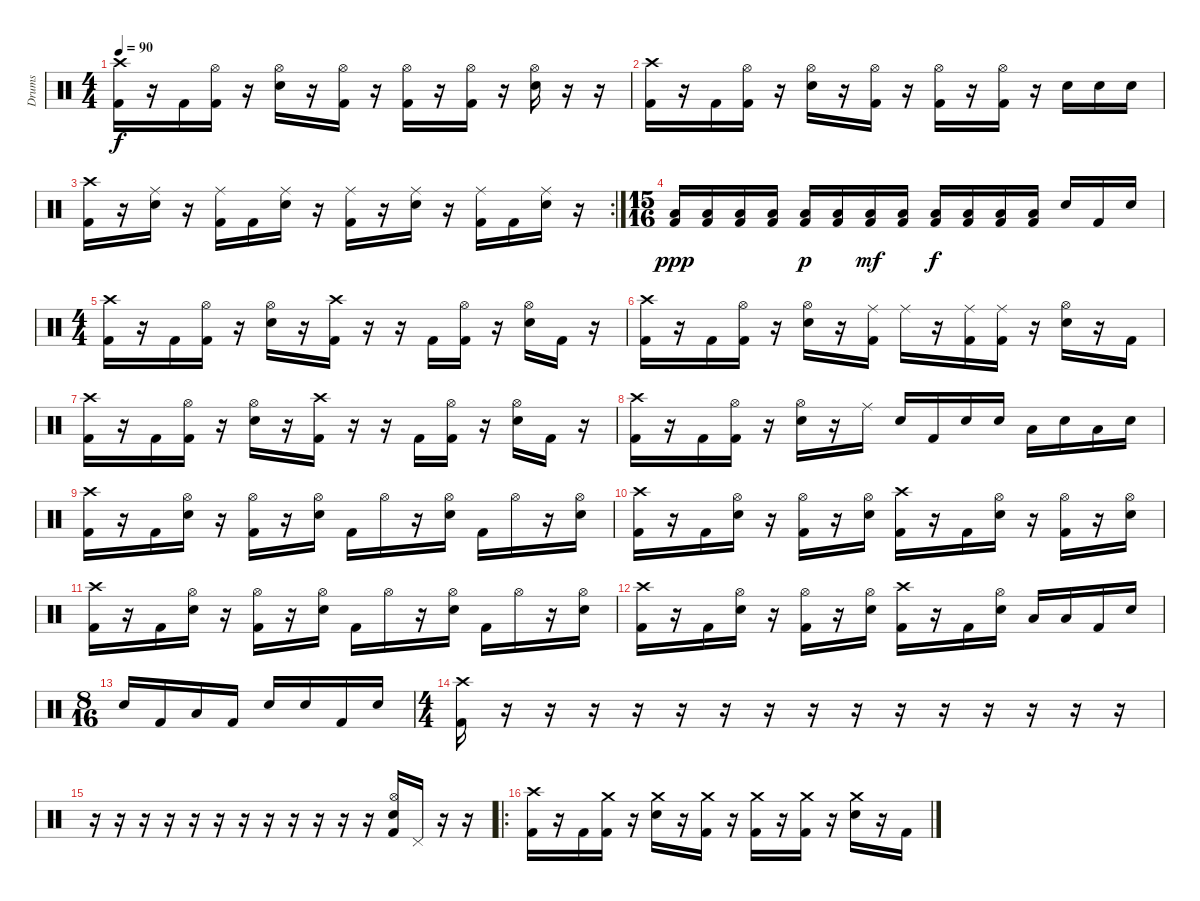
\track ("Drums" "Drums") {instrument percussion}
\staff {score}
\articulation defaults
\ts (4 4)
\tempo 90
\clef neutral
\ks c
("Crash high (hit)" "Kick (hit) 2").16{dy f} r.16 "Kick (hit) 2".16 ("Hi-Hat (open)" "Kick (hit) 2").16 r.16 ("Hi-Hat (open)" "Electric Snare (hit)").16 r.16 ("Hi-Hat (open)" "Kick (hit) 2").16 r.16 ("Hi-Hat (open)" "Kick (hit) 2").16 r.16 ("Hi-Hat (open)" "Kick (hit) 2").16 r.16 ("Hi-Hat (open)" "Electric Snare (hit)").16 r.16 r.16 |
("Crash high (hit)" "Kick (hit) 2").16 r.16 "Kick (hit) 2".16 ("Hi-Hat (open)" "Kick (hit) 2").16 r.16 ("Hi-Hat (open)" "Electric Snare (hit)").16 r.16 ("Hi-Hat (open)" "Kick (hit) 2").16 r.16 ("Hi-Hat (open)" "Kick (hit) 2").16 r.16 ("Hi-Hat (open)" "Kick (hit) 2").16 r.16 "Electric Snare (hit)".16 "Electric Snare (hit)".16 "Electric Snare (hit)".16 |
\rc 2
("Crash high (hit)" "Kick (hit) 2").16 r.16 ("Ride (middle)" "Electric Snare (hit)").16 r.16 ("Ride (middle)" "Kick (hit) 2").16 "Kick (hit) 2".16 ("Ride (middle)" "Electric Snare (hit)").16 r.16 ("Ride (middle)" "Kick (hit) 2").16 r.16 ("Ride (middle)" "Electric Snare (hit)").16 r.16 ("Ride (middle)" "Kick (hit) 2").16 "Kick (hit) 2".16 ("Ride (middle)" "Electric Snare (hit)").16 r.16 |
\ts (15 16)
("Low Tom (hit)" "Kick (hit) 2").16{dy ppp} ("Low Tom (hit)" "Kick (hit) 2").16 ("Low Tom (hit)" "Kick (hit) 2").16 ("Low Tom (hit)" "Kick (hit) 2").16 ("Low Tom (hit)" "Kick (hit) 2").16{dy p} ("Low Tom (hit)" "Kick (hit) 2").16 ("Low Tom (hit)" "Kick (hit) 2").16{dy mf} ("Low Tom (hit)" "Kick (hit) 2").16 ("Low Tom (hit)" "Kick (hit) 2").16{dy f} ("Low Tom (hit)" "Kick (hit) 2").16 ("Low Tom (hit)" "Kick (hit) 2").16 ("Low Tom (hit)" "Kick (hit) 2").16 "Electric Snare (hit)".16 "Kick (hit) 2".16 "Electric Snare (hit)".16 |
\ts (4 4)
("Crash high (hit)" "Kick (hit) 2").16 r.16 "Kick (hit) 2".16 ("Hi-Hat (open)" "Kick (hit) 2").16 r.16 ("Hi-Hat (open)" "Electric Snare (hit)").16 r.16 ("Crash high (hit)" "Kick (hit) 2").16 r.16 r.16 "Kick (hit) 2".16 ("Hi-Hat (open)" "Kick (hit) 2").16 r.16 ("Hi-Hat (open)" "Electric Snare (hit)").16 "Kick (hit) 2".16 r.16 |
("Crash high (hit)" "Kick (hit) 2").16 r.16 "Kick (hit) 2".16 ("Hi-Hat (open)" "Kick (hit) 2").16 r.16 ("Hi-Hat (open)" "Electric Snare (hit)").16 r.16 ("Ride (middle)" "Kick (hit) 2").16 "Ride (middle)".16 r.16 ("Ride (middle)" "Kick (hit) 2").16 ("Ride (middle)" "Kick (hit) 2").16 r.16 ("Hi-Hat (open)" "Electric Snare (hit)").16 r.16 "Kick (hit) 2".16 |
("Crash high (hit)" "Kick (hit) 2").16 r.16 "Kick (hit) 2".16 ("Hi-Hat (open)" "Kick (hit) 2").16 r.16 ("Hi-Hat (open)" "Electric Snare (hit)").16 r.16 ("Crash high (hit)" "Kick (hit) 2").16 r.16 r.16 "Kick (hit) 2".16 ("Hi-Hat (open)" "Kick (hit) 2").16 r.16 ("Hi-Hat (open)" "Electric Snare (hit)").16 "Kick (hit) 2".16 r.16 |
("Crash high (hit)" "Kick (hit) 2").16 r.16 "Kick (hit) 2".16 ("Hi-Hat (open)" "Kick (hit) 2").16 r.16 ("Hi-Hat (open)" "Electric Snare (hit)").16 r.16 "Ride (middle)".16 "Electric Snare (hit)".16 "Kick (hit) 2".16 "Electric Snare (hit)".16 "Electric Snare (hit)".16 "Low Tom (hit)".16 "Electric Snare (hit)".16 "Low Tom (hit)".16 "Electric Snare (hit)".16 |
("Crash high (hit)" "Kick (hit) 2").16 r.16 "Kick (hit) 2".16 ("Hi-Hat (open)" "Electric Snare (hit)").16 r.16 ("Hi-Hat (open)" "Kick (hit) 2").16 r.16 ("Hi-Hat (open)" "Electric Snare (hit)").16 "Kick (hit) 2".16 "Hi-Hat (open)".16 r.16 ("Hi-Hat (open)" "Electric Snare (hit)").16 "Kick (hit) 2".16 "Hi-Hat (open)".16 r.16 ("Hi-Hat (open)" "Electric Snare (hit)").16 |
("Crash high (hit)" "Kick (hit) 2").16 r.16 "Kick (hit) 2".16 ("Hi-Hat (open)" "Electric Snare (hit)").16 r.16 ("Hi-Hat (open)" "Kick (hit) 2").16 r.16 ("Hi-Hat (open)" "Electric Snare (hit)").16 ("Crash high (hit)" "Kick (hit) 2").16 r.16 "Kick (hit) 2".16 ("Hi-Hat (open)" "Electric Snare (hit)").16 r.16 ("Hi-Hat (open)" "Kick (hit) 2").16 r.16 ("Hi-Hat (open)" "Electric Snare (hit)").16 |
("Crash high (hit)" "Kick (hit) 2").16 r.16 "Kick (hit) 2".16 ("Hi-Hat (open)" "Electric Snare (hit)").16 r.16 ("Hi-Hat (open)" "Kick (hit) 2").16 r.16 ("Hi-Hat (open)" "Electric Snare (hit)").16 "Kick (hit) 2".16 "Hi-Hat (open)".16 r.16 ("Hi-Hat (open)" "Electric Snare (hit)").16 "Kick (hit) 2".16 "Hi-Hat (open)".16 r.16 ("Hi-Hat (open)" "Electric Snare (hit)").16 |
("Crash high (hit)" "Kick (hit) 2").16 r.16 "Kick (hit) 2".16 ("Hi-Hat (open)" "Electric Snare (hit)").16 r.16 ("Hi-Hat (open)" "Kick (hit) 2").16 r.16 ("Hi-Hat (open)" "Electric Snare (hit)").16 ("Crash high (hit)" "Kick (hit) 2").16 r.16 "Kick (hit) 2".16 ("Hi-Hat (open)" "Electric Snare (hit)").16 "Low Tom (hit)".16 "Low Tom (hit)".16 "Kick (hit) 2".16 "Electric Snare (hit)".16 |
\ts (8 16)
"Electric Snare (hit)".16 "Kick (hit) 2".16 "Low Tom (hit)".16 "Kick (hit) 2".16 "Electric Snare (hit)".16 "Electric Snare (hit)".16 "Kick (hit) 2".16 "Electric Snare (hit)".16 |
\ts (4 4)
("Crash high (hit)" "Kick (hit) 2").16 r.16 r.16 r.16 r.16 r.16 r.16 r.16 r.16 r.16 r.16 r.16 r.16 r.16 r.16 r.16 |
r.16 r.16 r.16 r.16 r.16 r.16 r.16 r.16 r.16 r.16 r.16 r.16 ("Hi-Hat (open)" "Electric Snare (hit)" "Kick (hit) 2").16 "Pedal Hi-Hat (hit)".16 r.16 r.16 |
\ro
("Crash high (hit)" "Kick (hit) 2").16 r.16 "Kick (hit) 2".16 ("Crash medium (hit)" "Kick (hit) 2").16 r.16 ("Crash medium (hit)" "Electric Snare (hit)").16 r.16 ("Crash medium (hit)" "Kick (hit) 2").16 r.16 ("Crash medium (hit)" "Kick (hit) 2").16 r.16 ("Crash medium (hit)" "Kick (hit) 2").16 r.16 ("Crash medium (hit)" "Electric Snare (hit)").16 r.16 "Kick (hit) 2".16
